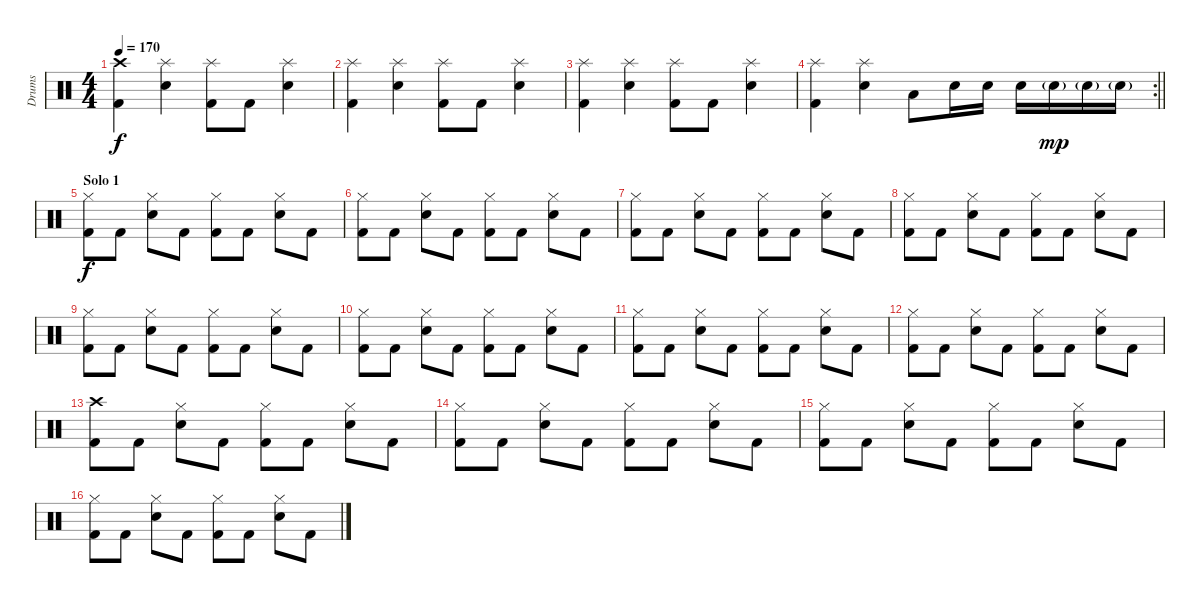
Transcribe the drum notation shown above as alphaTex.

\track ("Drums" "Drums") {instrument percussion}
\staff {score}
\articulation defaults
\ts (4 4)
\tempo 170
\clef neutral
\ks aminor
("Crash high (hit)" "Kick (hit) 2").4{dy f} ("Splash (hit)" "Snare (hit) 2").4 ("Splash (hit)" "Kick (hit) 2").8 "Kick (hit) 2".8 ("Splash (hit)" "Snare (hit) 2").4 |
("Splash (hit)" "Kick (hit) 2").4 ("Splash (hit)" "Snare (hit) 2").4 ("Splash (hit)" "Kick (hit) 2").8 "Kick (hit) 2".8 ("Splash (hit)" "Snare (hit) 2").4 |
("Splash (hit)" "Kick (hit) 2").4 ("Splash (hit)" "Snare (hit) 2").4 ("Splash (hit)" "Kick (hit) 2").8 "Kick (hit) 2".8 ("Splash (hit)" "Snare (hit) 2").4 |
\rc 2
\barLineRight lightlight
("Splash (hit)" "Kick (hit) 2").4 ("Splash (hit)" "Snare (hit) 2").4 "Low Tom (hit)".8 "Electric Snare (hit)".16 "Electric Snare (hit)".16 "Electric Snare (hit)".16 "Electric Snare (hit)"{g}.16{dy mp} "Electric Snare (hit)"{g}.16 "Electric Snare (hit)"{g}.16 |
\section ("" "Solo 1")
("Hi-Hat (closed)" "Kick (hit) 2").8{dy f} "Kick (hit) 2".8 ("Hi-Hat (closed)" "Snare (hit) 2").8 "Kick (hit) 2".8 ("Hi-Hat (closed)" "Kick (hit) 2").8 "Kick (hit) 2".8 ("Hi-Hat (closed)" "Snare (hit) 2").8 "Kick (hit) 2".8 |
("Hi-Hat (closed)" "Kick (hit) 2").8 "Kick (hit) 2".8 ("Hi-Hat (closed)" "Snare (hit) 2").8 "Kick (hit) 2".8 ("Hi-Hat (closed)" "Kick (hit) 2").8 "Kick (hit) 2".8 ("Hi-Hat (closed)" "Snare (hit) 2").8 "Kick (hit) 2".8 |
("Hi-Hat (closed)" "Kick (hit) 2").8 "Kick (hit) 2".8 ("Hi-Hat (closed)" "Snare (hit) 2").8 "Kick (hit) 2".8 ("Hi-Hat (closed)" "Kick (hit) 2").8 "Kick (hit) 2".8 ("Hi-Hat (closed)" "Snare (hit) 2").8 "Kick (hit) 2".8 |
("Hi-Hat (closed)" "Kick (hit) 2").8 "Kick (hit) 2".8 ("Hi-Hat (closed)" "Snare (hit) 2").8 "Kick (hit) 2".8 ("Hi-Hat (closed)" "Kick (hit) 2").8 "Kick (hit) 2".8 ("Hi-Hat (closed)" "Snare (hit) 2").8 "Kick (hit) 2".8 |
("Hi-Hat (closed)" "Kick (hit) 2").8 "Kick (hit) 2".8 ("Hi-Hat (closed)" "Snare (hit) 2").8 "Kick (hit) 2".8 ("Hi-Hat (closed)" "Kick (hit) 2").8 "Kick (hit) 2".8 ("Hi-Hat (closed)" "Snare (hit) 2").8 "Kick (hit) 2".8 |
("Hi-Hat (closed)" "Kick (hit) 2").8 "Kick (hit) 2".8 ("Hi-Hat (closed)" "Snare (hit) 2").8 "Kick (hit) 2".8 ("Hi-Hat (closed)" "Kick (hit) 2").8 "Kick (hit) 2".8 ("Hi-Hat (closed)" "Snare (hit) 2").8 "Kick (hit) 2".8 |
("Hi-Hat (closed)" "Kick (hit) 2").8 "Kick (hit) 2".8 ("Hi-Hat (closed)" "Snare (hit) 2").8 "Kick (hit) 2".8 ("Hi-Hat (closed)" "Kick (hit) 2").8 "Kick (hit) 2".8 ("Hi-Hat (closed)" "Snare (hit) 2").8 "Kick (hit) 2".8 |
("Hi-Hat (closed)" "Kick (hit) 2").8 "Kick (hit) 2".8 ("Hi-Hat (closed)" "Snare (hit) 2").8 "Kick (hit) 2".8 ("Hi-Hat (closed)" "Kick (hit) 2").8 "Kick (hit) 2".8 ("Hi-Hat (closed)" "Snare (hit) 2").8 "Kick (hit) 2".8 |
("Crash high (hit)" "Kick (hit) 2").8 "Kick (hit) 2".8 ("Hi-Hat (closed)" "Snare (hit) 2").8 "Kick (hit) 2".8 ("Hi-Hat (closed)" "Kick (hit) 2").8 "Kick (hit) 2".8 ("Hi-Hat (closed)" "Snare (hit) 2").8 "Kick (hit) 2".8 |
("Hi-Hat (closed)" "Kick (hit) 2").8 "Kick (hit) 2".8 ("Hi-Hat (closed)" "Snare (hit) 2").8 "Kick (hit) 2".8 ("Hi-Hat (closed)" "Kick (hit) 2").8 "Kick (hit) 2".8 ("Hi-Hat (closed)" "Snare (hit) 2").8 "Kick (hit) 2".8 |
("Hi-Hat (closed)" "Kick (hit) 2").8 "Kick (hit) 2".8 ("Hi-Hat (closed)" "Snare (hit) 2").8 "Kick (hit) 2".8 ("Hi-Hat (closed)" "Kick (hit) 2").8 "Kick (hit) 2".8 ("Hi-Hat (closed)" "Snare (hit) 2").8 "Kick (hit) 2".8 |
("Hi-Hat (closed)" "Kick (hit) 2").8 "Kick (hit) 2".8 ("Hi-Hat (closed)" "Snare (hit) 2").8 "Kick (hit) 2".8 ("Hi-Hat (closed)" "Kick (hit) 2").8 "Kick (hit) 2".8 ("Hi-Hat (closed)" "Snare (hit) 2").8 "Kick (hit) 2".8
